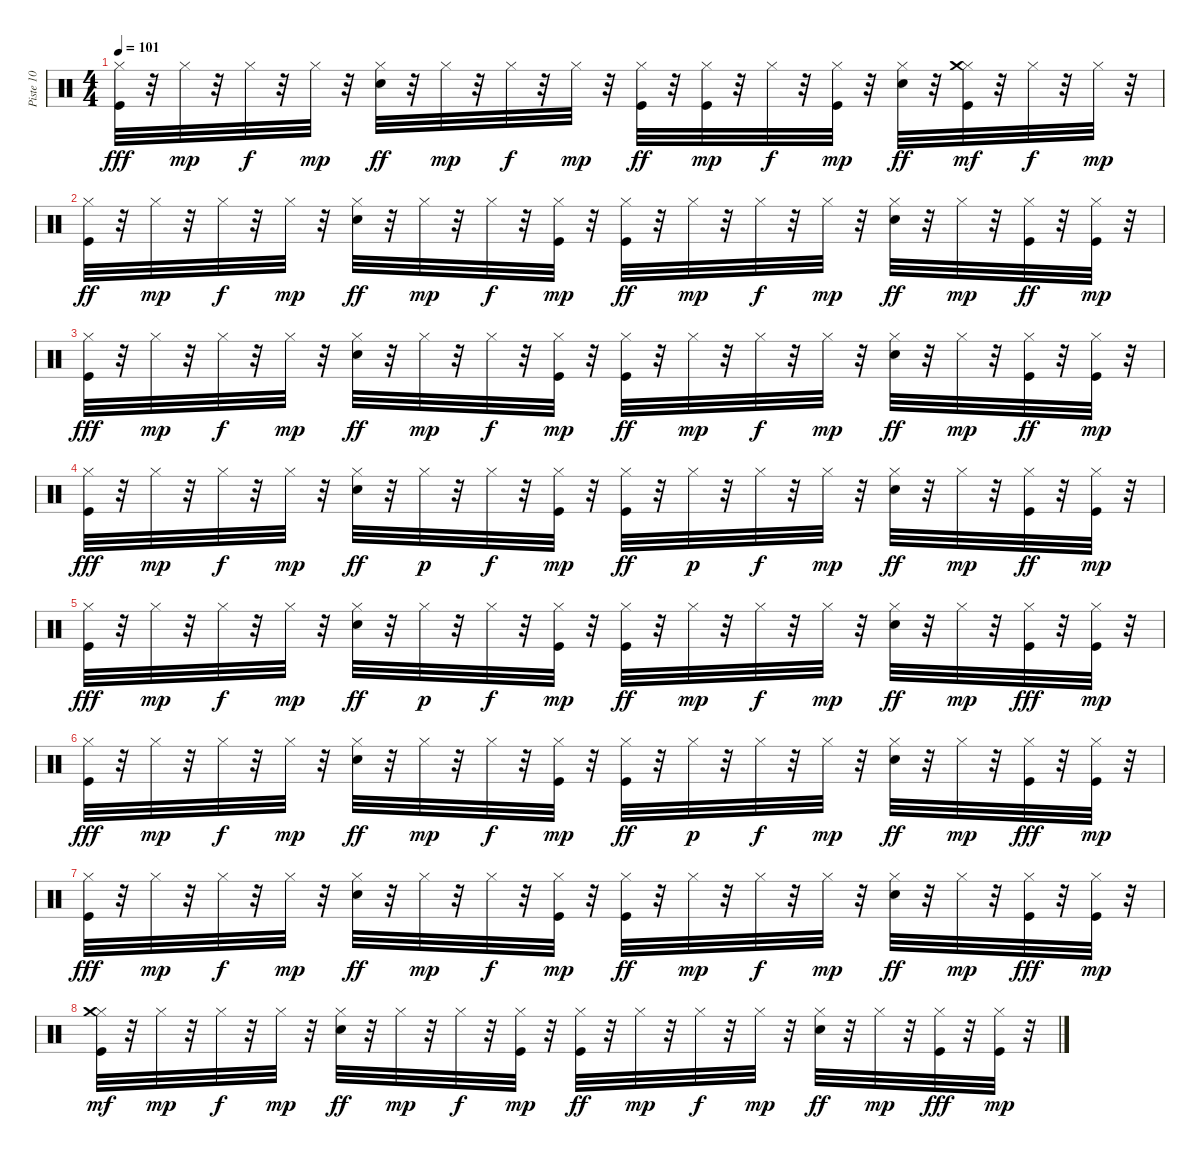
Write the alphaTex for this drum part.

\track ("Piste 10" "Piste 10") {instrument percussion}
\staff {score}
\articulation defaults
\ts (4 4)
\tempo 101
\clef neutral
\ks c
("Kick (hit)" "Hi-Hat (closed)").32{dy fff} r.32 "Hi-Hat (closed)".32{dy mp} r.32 "Hi-Hat (closed)".32{dy f} r.32 "Hi-Hat (closed)".32{dy mp} r.32 ("Electric Snare (hit)" "Hi-Hat (closed)").32{dy ff} r.32 "Hi-Hat (closed)".32{dy mp} r.32 "Hi-Hat (closed)".32{dy f} r.32 "Hi-Hat (closed)".32{dy mp} r.32 ("Kick (hit)" "Hi-Hat (closed)").32{dy ff} r.32 ("Kick (hit)" "Hi-Hat (closed)").32{dy mp} r.32 "Hi-Hat (closed)".32{dy f} r.32 ("Kick (hit)" "Hi-Hat (closed)").32{dy mp} r.32 ("Electric Snare (hit)" "Hi-Hat (closed)").32{dy ff} r.32 ("Kick (hit)" "Hi-Hat (closed)" "Crash medium (hit)").32{dy mf} r.32 "Hi-Hat (closed)".32{dy f} r.32 "Hi-Hat (closed)".32{dy mp} r.32 |
("Kick (hit)" "Hi-Hat (closed)").32{dy ff} r.32 "Hi-Hat (closed)".32{dy mp} r.32 "Hi-Hat (closed)".32{dy f} r.32 "Hi-Hat (closed)".32{dy mp} r.32 ("Electric Snare (hit)" "Hi-Hat (closed)").32{dy ff} r.32 "Hi-Hat (closed)".32{dy mp} r.32 "Hi-Hat (closed)".32{dy f} r.32 ("Kick (hit)" "Hi-Hat (closed)").32{dy mp} r.32 ("Kick (hit)" "Hi-Hat (closed)").32{dy ff} r.32 "Hi-Hat (closed)".32{dy mp} r.32 "Hi-Hat (closed)".32{dy f} r.32 "Hi-Hat (closed)".32{dy mp} r.32 ("Electric Snare (hit)" "Hi-Hat (closed)").32{dy ff} r.32 "Hi-Hat (closed)".32{dy mp} r.32 ("Kick (hit)" "Hi-Hat (closed)").32{dy ff} r.32 ("Kick (hit)" "Hi-Hat (closed)").32{dy mp} r.32 |
("Kick (hit)" "Hi-Hat (closed)").32{dy fff} r.32 "Hi-Hat (closed)".32{dy mp} r.32 "Hi-Hat (closed)".32{dy f} r.32 "Hi-Hat (closed)".32{dy mp} r.32 ("Electric Snare (hit)" "Hi-Hat (closed)").32{dy ff} r.32 "Hi-Hat (closed)".32{dy mp} r.32 "Hi-Hat (closed)".32{dy f} r.32 ("Kick (hit)" "Hi-Hat (closed)").32{dy mp} r.32 ("Kick (hit)" "Hi-Hat (closed)").32{dy ff} r.32 "Hi-Hat (closed)".32{dy mp} r.32 "Hi-Hat (closed)".32{dy f} r.32 "Hi-Hat (closed)".32{dy mp} r.32 ("Electric Snare (hit)" "Hi-Hat (closed)").32{dy ff} r.32 "Hi-Hat (closed)".32{dy mp} r.32 ("Kick (hit)" "Hi-Hat (closed)").32{dy ff} r.32 ("Kick (hit)" "Hi-Hat (closed)").32{dy mp} r.32 |
("Kick (hit)" "Hi-Hat (closed)").32{dy fff} r.32 "Hi-Hat (closed)".32{dy mp} r.32 "Hi-Hat (closed)".32{dy f} r.32 "Hi-Hat (closed)".32{dy mp} r.32 ("Electric Snare (hit)" "Hi-Hat (closed)").32{dy ff} r.32 "Hi-Hat (closed)".32{dy p} r.32 "Hi-Hat (closed)".32{dy f} r.32 ("Kick (hit)" "Hi-Hat (closed)").32{dy mp} r.32 ("Kick (hit)" "Hi-Hat (closed)").32{dy ff} r.32 "Hi-Hat (closed)".32{dy p} r.32 "Hi-Hat (closed)".32{dy f} r.32 "Hi-Hat (closed)".32{dy mp} r.32 ("Electric Snare (hit)" "Hi-Hat (closed)").32{dy ff} r.32 "Hi-Hat (closed)".32{dy mp} r.32 ("Kick (hit)" "Hi-Hat (closed)").32{dy ff} r.32 ("Kick (hit)" "Hi-Hat (closed)").32{dy mp} r.32 |
("Kick (hit)" "Hi-Hat (closed)").32{dy fff} r.32 "Hi-Hat (closed)".32{dy mp} r.32 "Hi-Hat (closed)".32{dy f} r.32 "Hi-Hat (closed)".32{dy mp} r.32 ("Electric Snare (hit)" "Hi-Hat (closed)").32{dy ff} r.32 "Hi-Hat (closed)".32{dy p} r.32 "Hi-Hat (closed)".32{dy f} r.32 ("Kick (hit)" "Hi-Hat (closed)").32{dy mp} r.32 ("Kick (hit)" "Hi-Hat (closed)").32{dy ff} r.32 "Hi-Hat (closed)".32{dy mp} r.32 "Hi-Hat (closed)".32{dy f} r.32 "Hi-Hat (closed)".32{dy mp} r.32 ("Electric Snare (hit)" "Hi-Hat (closed)").32{dy ff} r.32 "Hi-Hat (closed)".32{dy mp} r.32 ("Kick (hit)" "Hi-Hat (closed)").32{dy fff} r.32 ("Kick (hit)" "Hi-Hat (closed)").32{dy mp} r.32 |
("Kick (hit)" "Hi-Hat (closed)").32{dy fff} r.32 "Hi-Hat (closed)".32{dy mp} r.32 "Hi-Hat (closed)".32{dy f} r.32 "Hi-Hat (closed)".32{dy mp} r.32 ("Electric Snare (hit)" "Hi-Hat (closed)").32{dy ff} r.32 "Hi-Hat (closed)".32{dy mp} r.32 "Hi-Hat (closed)".32{dy f} r.32 ("Kick (hit)" "Hi-Hat (closed)").32{dy mp} r.32 ("Kick (hit)" "Hi-Hat (closed)").32{dy ff} r.32 "Hi-Hat (closed)".32{dy p} r.32 "Hi-Hat (closed)".32{dy f} r.32 "Hi-Hat (closed)".32{dy mp} r.32 ("Electric Snare (hit)" "Hi-Hat (closed)").32{dy ff} r.32 "Hi-Hat (closed)".32{dy mp} r.32 ("Kick (hit)" "Hi-Hat (closed)").32{dy fff} r.32 ("Kick (hit)" "Hi-Hat (closed)").32{dy mp} r.32 |
("Kick (hit)" "Hi-Hat (closed)").32{dy fff} r.32 "Hi-Hat (closed)".32{dy mp} r.32 "Hi-Hat (closed)".32{dy f} r.32 "Hi-Hat (closed)".32{dy mp} r.32 ("Electric Snare (hit)" "Hi-Hat (closed)").32{dy ff} r.32 "Hi-Hat (closed)".32{dy mp} r.32 "Hi-Hat (closed)".32{dy f} r.32 ("Kick (hit)" "Hi-Hat (closed)").32{dy mp} r.32 ("Kick (hit)" "Hi-Hat (closed)").32{dy ff} r.32 "Hi-Hat (closed)".32{dy mp} r.32 "Hi-Hat (closed)".32{dy f} r.32 "Hi-Hat (closed)".32{dy mp} r.32 ("Electric Snare (hit)" "Hi-Hat (closed)").32{dy ff} r.32 "Hi-Hat (closed)".32{dy mp} r.32 ("Kick (hit)" "Hi-Hat (closed)").32{dy fff} r.32 ("Kick (hit)" "Hi-Hat (closed)").32{dy mp} r.32 |
("Kick (hit)" "Hi-Hat (closed)" "Crash medium (hit)").32{dy mf} r.32 "Hi-Hat (closed)".32{dy mp} r.32 "Hi-Hat (closed)".32{dy f} r.32 "Hi-Hat (closed)".32{dy mp} r.32 ("Electric Snare (hit)" "Hi-Hat (closed)").32{dy ff} r.32 "Hi-Hat (closed)".32{dy mp} r.32 "Hi-Hat (closed)".32{dy f} r.32 ("Kick (hit)" "Hi-Hat (closed)").32{dy mp} r.32 ("Kick (hit)" "Hi-Hat (closed)").32{dy ff} r.32 "Hi-Hat (closed)".32{dy mp} r.32 "Hi-Hat (closed)".32{dy f} r.32 "Hi-Hat (closed)".32{dy mp} r.32 ("Electric Snare (hit)" "Hi-Hat (closed)").32{dy ff} r.32 "Hi-Hat (closed)".32{dy mp} r.32 ("Kick (hit)" "Hi-Hat (closed)").32{dy fff} r.32 ("Kick (hit)" "Hi-Hat (closed)").32{dy mp} r.32
